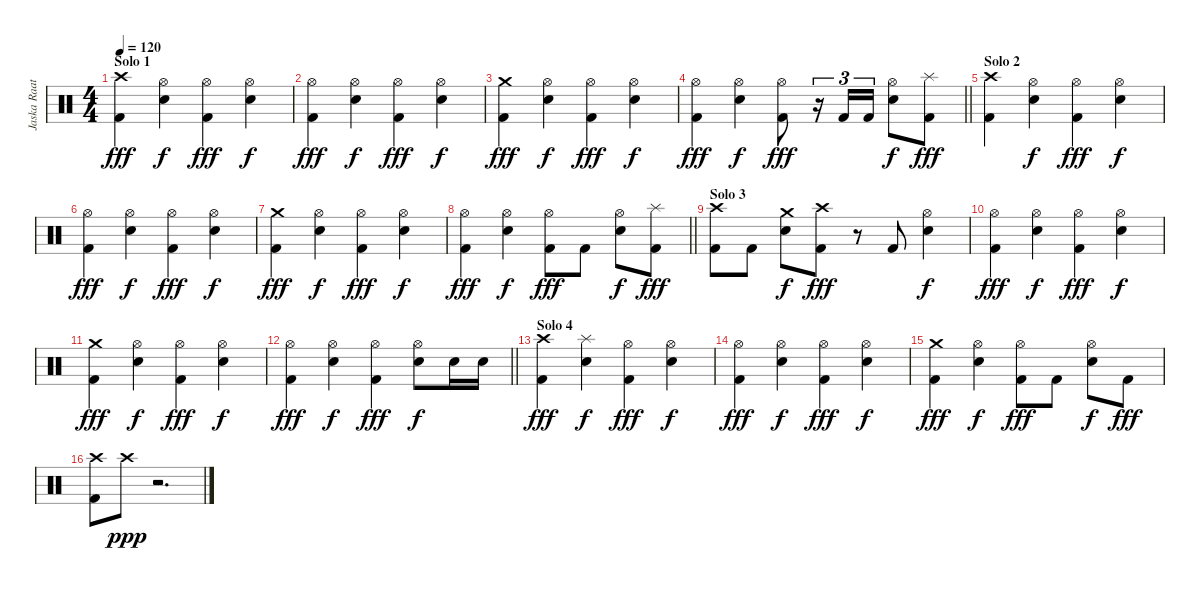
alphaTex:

\track ("Jaska Raatikainen" "Jaska Raat") {instrument percussion}
\staff {score}
\articulation defaults
\ts (4 4)
\section ("" "Solo 1")
\tempo 120
\clef neutral
\ks c
("Crash high (hit)" "Kick (hit) 2").4{dy fff} ("Hi-Hat (open)" "Electric Snare (hit)").4{dy f} ("Hi-Hat (open)" "Kick (hit) 2").4{dy fff} ("Hi-Hat (open)" "Electric Snare (hit)").4{dy f} |
("Hi-Hat (open)" "Kick (hit) 2").4{dy fff} ("Hi-Hat (open)" "Electric Snare (hit)").4{dy f} ("Hi-Hat (open)" "Kick (hit) 2").4{dy fff} ("Hi-Hat (open)" "Electric Snare (hit)").4{dy f} |
("Crash medium (hit)" "Kick (hit) 2").4{dy fff} ("Hi-Hat (open)" "Electric Snare (hit)").4{dy f} ("Hi-Hat (open)" "Kick (hit) 2").4{dy fff} ("Hi-Hat (open)" "Electric Snare (hit)").4{dy f} |
\barLineRight lightlight
("Hi-Hat (open)" "Kick (hit) 2").4{dy fff} ("Hi-Hat (open)" "Electric Snare (hit)").4{dy f} ("Hi-Hat (open)" "Kick (hit) 2").8{dy fff} r.16{tu (3 2)} "Kick (hit) 2".16{tu (3 2)} "Kick (hit) 2".16{tu (3 2)} ("Hi-Hat (open)" "Electric Snare (hit)").8{dy f} ("Splash (hit)" "Kick (hit) 2").8{dy fff} |
\section ("" "Solo 2")
("Crash high (hit)" "Kick (hit) 2").4 ("Hi-Hat (open)" "Electric Snare (hit)").4{dy f} ("Hi-Hat (open)" "Kick (hit) 2").4{dy fff} ("Hi-Hat (open)" "Electric Snare (hit)").4{dy f} |
("Hi-Hat (open)" "Kick (hit) 2").4{dy fff} ("Hi-Hat (open)" "Electric Snare (hit)").4{dy f} ("Hi-Hat (open)" "Kick (hit) 2").4{dy fff} ("Hi-Hat (open)" "Electric Snare (hit)").4{dy f} |
("Crash medium (hit)" "Kick (hit) 2").4{dy fff} ("Hi-Hat (open)" "Electric Snare (hit)").4{dy f} ("Hi-Hat (open)" "Kick (hit) 2").4{dy fff} ("Hi-Hat (open)" "Electric Snare (hit)").4{dy f} |
\barLineRight lightlight
("Hi-Hat (open)" "Kick (hit) 2").4{dy fff} ("Hi-Hat (open)" "Electric Snare (hit)").4{dy f} ("Hi-Hat (open)" "Kick (hit) 2").8{dy fff} "Kick (hit) 2".8 ("Hi-Hat (open)" "Electric Snare (hit)").8{dy f} ("Splash (hit)" "Kick (hit) 2").8{dy fff} |
\section ("" "Solo 3")
("Crash high (hit)" "Kick (hit) 2").8 "Kick (hit) 2".8 ("Crash medium (hit)" "Electric Snare (hit)").8{dy f} ("Crash high (hit)" "Kick (hit) 2").8{dy fff} r.8 "Kick (hit) 2".8 ("Hi-Hat (open)" "Electric Snare (hit)").4{dy f} |
("Hi-Hat (open)" "Kick (hit) 2").4{dy fff} ("Hi-Hat (open)" "Electric Snare (hit)").4{dy f} ("Hi-Hat (open)" "Kick (hit) 2").4{dy fff} ("Hi-Hat (open)" "Electric Snare (hit)").4{dy f} |
("Crash medium (hit)" "Kick (hit) 2").4{dy fff} ("Hi-Hat (open)" "Electric Snare (hit)").4{dy f} ("Hi-Hat (open)" "Kick (hit) 2").4{dy fff} ("Hi-Hat (open)" "Electric Snare (hit)").4{dy f} |
\barLineRight lightlight
("Hi-Hat (open)" "Kick (hit) 2").4{dy fff} ("Hi-Hat (open)" "Electric Snare (hit)").4{dy f} ("Hi-Hat (open)" "Kick (hit) 2").4{dy fff} ("Hi-Hat (open)" "Electric Snare (hit)").8{dy f} "Electric Snare (hit)".16 "Electric Snare (hit)".16 |
\section ("" "Solo 4")
("Crash high (hit)" "Kick (hit) 2").4{dy fff} ("Splash (hit)" "Electric Snare (hit)").4{dy f} ("Hi-Hat (open)" "Kick (hit) 2").4{dy fff} ("Hi-Hat (open)" "Electric Snare (hit)").4{dy f} |
("Hi-Hat (open)" "Kick (hit) 2").4{dy fff} ("Hi-Hat (open)" "Electric Snare (hit)").4{dy f} ("Hi-Hat (open)" "Kick (hit) 2").4{dy fff} ("Hi-Hat (open)" "Electric Snare (hit)").4{dy f} |
("Crash medium (hit)" "Kick (hit) 2").4{dy fff} ("Hi-Hat (open)" "Electric Snare (hit)").4{dy f} ("Hi-Hat (open)" "Kick (hit) 2").8{dy fff} "Kick (hit) 2".8 ("Hi-Hat (open)" "Electric Snare (hit)").8{dy f} "Kick (hit) 2".8{dy fff} |
("Crash high (hit)" "Kick (hit) 2").8 "Crash high (hit)".8{dy ppp} r.2{d}
